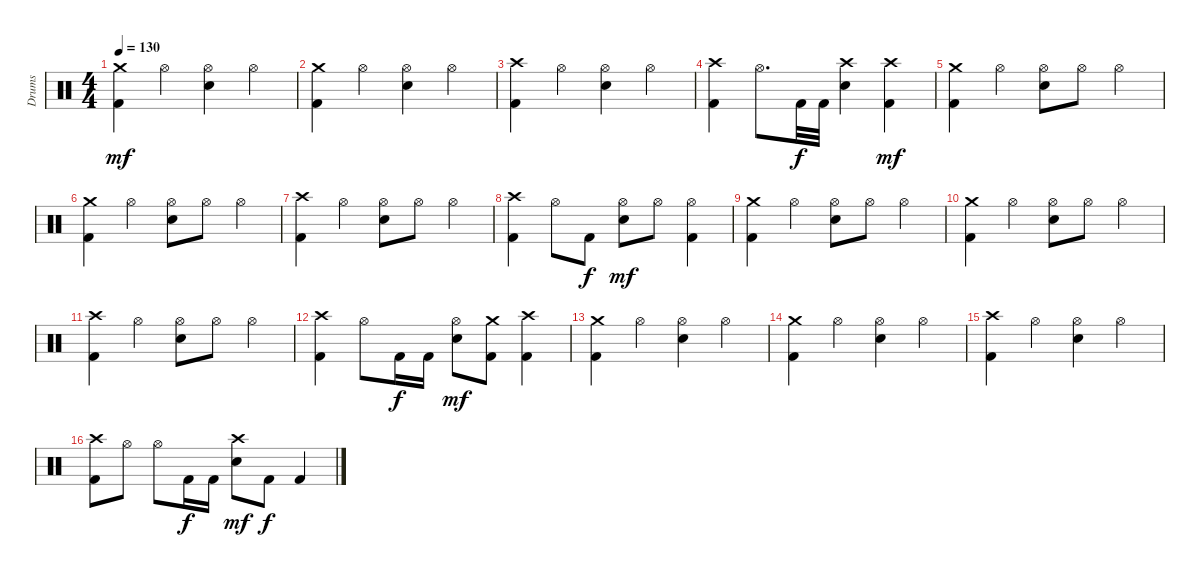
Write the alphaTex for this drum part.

\track ("Drums" "Drums") {instrument percussion}
\staff {score}
\articulation defaults
\ts (4 4)
\tempo 130
\clef neutral
\ks c
("Kick (hit) 2" "Crash medium (hit)").4{dy mf} "Hi-Hat (open)".4 ("Electric Snare (hit)" "Hi-Hat (open)").4 "Hi-Hat (open)".4 |
("Kick (hit) 2" "Crash medium (hit)").4 "Hi-Hat (open)".4 ("Electric Snare (hit)" "Hi-Hat (open)").4 "Hi-Hat (open)".4 |
("Kick (hit) 2" "Crash high (hit)").4 "Hi-Hat (open)".4 ("Electric Snare (hit)" "Hi-Hat (open)").4 "Hi-Hat (open)".4 |
("Kick (hit) 2" "Crash high (hit)").4 "Hi-Hat (open)".8{d} "Kick (hit) 2".32{dy f} "Kick (hit) 2".32 ("Electric Snare (hit)" "Crash high (hit)").4 ("Kick (hit) 2" "Crash high (hit)").4{dy mf} |
("Kick (hit) 2" "Crash medium (hit)").4 "Hi-Hat (open)".4 ("Electric Snare (hit)" "Hi-Hat (open)").8 "Hi-Hat (open)".8 "Hi-Hat (open)".4 |
("Kick (hit) 2" "Crash medium (hit)").4 "Hi-Hat (open)".4 ("Electric Snare (hit)" "Hi-Hat (open)").8 "Hi-Hat (open)".8 "Hi-Hat (open)".4 |
("Kick (hit) 2" "Crash high (hit)").4 "Hi-Hat (open)".4 ("Electric Snare (hit)" "Hi-Hat (open)").8 "Hi-Hat (open)".8 "Hi-Hat (open)".4 |
("Kick (hit) 2" "Crash high (hit)").4 "Hi-Hat (open)".8 "Kick (hit) 2".8{dy f} ("Electric Snare (hit)" "Hi-Hat (open)").8{dy mf} "Hi-Hat (open)".8 ("Kick (hit) 2" "Hi-Hat (open)").4 |
("Kick (hit) 2" "Crash medium (hit)").4 "Hi-Hat (open)".4 ("Electric Snare (hit)" "Hi-Hat (open)").8 "Hi-Hat (open)".8 "Hi-Hat (open)".4 |
("Kick (hit) 2" "Crash medium (hit)").4 "Hi-Hat (open)".4 ("Electric Snare (hit)" "Hi-Hat (open)").8 "Hi-Hat (open)".8 "Hi-Hat (open)".4 |
("Kick (hit) 2" "Crash high (hit)").4 "Hi-Hat (open)".4 ("Electric Snare (hit)" "Hi-Hat (open)").8 "Hi-Hat (open)".8 "Hi-Hat (open)".4 |
("Kick (hit) 2" "Crash high (hit)").4 "Hi-Hat (open)".8 "Kick (hit) 2".16{dy f} "Kick (hit) 2".16 ("Electric Snare (hit)" "Hi-Hat (open)").8{dy mf} ("Kick (hit) 2" "Crash medium (hit)").8 ("Kick (hit) 2" "Crash high (hit)").4 |
("Kick (hit) 2" "Crash medium (hit)").4 "Hi-Hat (open)".4 ("Electric Snare (hit)" "Hi-Hat (open)").4 "Hi-Hat (open)".4 |
("Kick (hit) 2" "Crash medium (hit)").4 "Hi-Hat (open)".4 ("Electric Snare (hit)" "Hi-Hat (open)").4 "Hi-Hat (open)".4 |
("Kick (hit) 2" "Crash high (hit)").4 "Hi-Hat (open)".4 ("Electric Snare (hit)" "Hi-Hat (open)").4 "Hi-Hat (open)".4 |
("Kick (hit) 2" "Crash high (hit)").8 "Hi-Hat (open)".8 "Hi-Hat (open)".8 "Kick (hit) 2".16{dy f} "Kick (hit) 2".16 ("Electric Snare (hit)" "Crash high (hit)").8{dy mf} "Kick (hit) 2".8{dy f} "Kick (hit) 2".4
